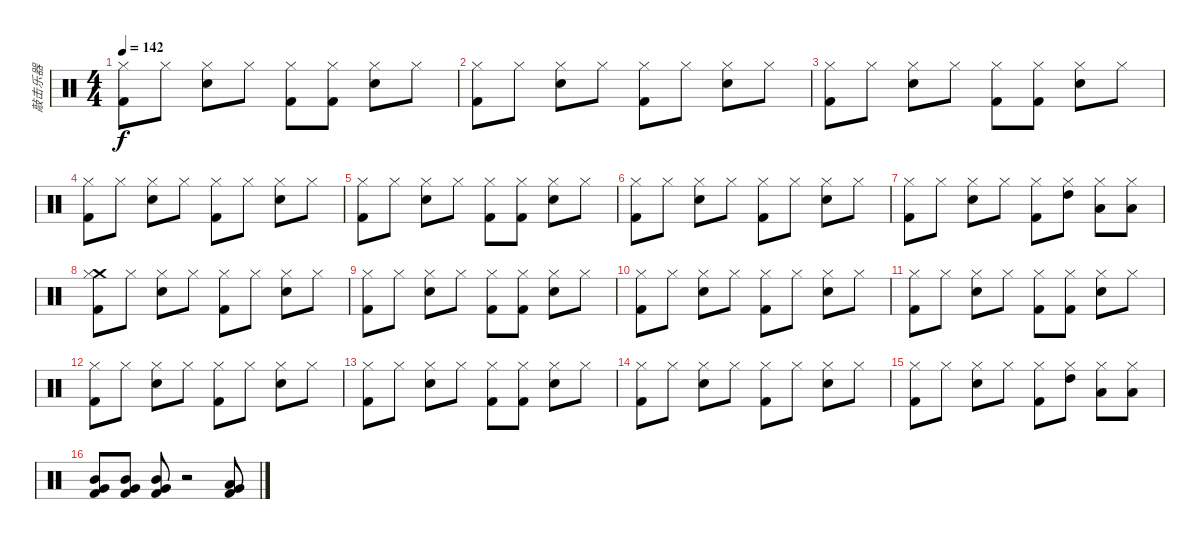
\track ("敲击乐器" "敲击乐器") {instrument percussion}
\staff {score}
\articulation defaults
\ts (4 4)
\tempo 142
\clef neutral
\ks c
("Hi-Hat (closed)" "Kick (hit) 2").8{dy f} "Hi-Hat (closed)".8 ("Snare (hit) 2" "Hi-Hat (closed)").8 "Hi-Hat (closed)".8 ("Hi-Hat (closed)" "Kick (hit) 2").8 ("Hi-Hat (closed)" "Kick (hit) 2").8 ("Snare (hit) 2" "Hi-Hat (closed)").8 "Hi-Hat (closed)".8 |
("Hi-Hat (closed)" "Kick (hit) 2").8 "Hi-Hat (closed)".8 ("Snare (hit) 2" "Hi-Hat (closed)").8 "Hi-Hat (closed)".8 ("Hi-Hat (closed)" "Kick (hit) 2").8 "Hi-Hat (closed)".8 ("Snare (hit) 2" "Hi-Hat (closed)").8 "Hi-Hat (closed)".8 |
("Hi-Hat (closed)" "Kick (hit) 2").8 "Hi-Hat (closed)".8 ("Snare (hit) 2" "Hi-Hat (closed)").8 "Hi-Hat (closed)".8 ("Hi-Hat (closed)" "Kick (hit) 2").8 ("Hi-Hat (closed)" "Kick (hit) 2").8 ("Snare (hit) 2" "Hi-Hat (closed)").8 "Hi-Hat (closed)".8 |
("Hi-Hat (closed)" "Kick (hit) 2").8 "Hi-Hat (closed)".8 ("Snare (hit) 2" "Hi-Hat (closed)").8 "Hi-Hat (closed)".8 ("Hi-Hat (closed)" "Kick (hit) 2").8 "Hi-Hat (closed)".8 ("Snare (hit) 2" "Hi-Hat (closed)").8 "Hi-Hat (closed)".8 |
("Hi-Hat (closed)" "Kick (hit) 2").8 "Hi-Hat (closed)".8 ("Snare (hit) 2" "Hi-Hat (closed)").8 "Hi-Hat (closed)".8 ("Hi-Hat (closed)" "Kick (hit) 2").8 ("Hi-Hat (closed)" "Kick (hit) 2").8 ("Snare (hit) 2" "Hi-Hat (closed)").8 "Hi-Hat (closed)".8 |
("Hi-Hat (closed)" "Kick (hit) 2").8 "Hi-Hat (closed)".8 ("Snare (hit) 2" "Hi-Hat (closed)").8 "Hi-Hat (closed)".8 ("Hi-Hat (closed)" "Kick (hit) 2").8 "Hi-Hat (closed)".8 ("Snare (hit) 2" "Hi-Hat (closed)").8 "Hi-Hat (closed)".8 |
("Hi-Hat (closed)" "Kick (hit) 2").8 "Hi-Hat (closed)".8 ("Snare (hit) 2" "Hi-Hat (closed)").8 "Hi-Hat (closed)".8 ("Hi-Hat (closed)" "Kick (hit) 2").8 ("High Tom (hit)" "Hi-Hat (closed)").8 ("Low Tom (hit)" "Hi-Hat (closed)").8 ("Low Floor Tom (hit)" "Hi-Hat (closed)").8 |
("Crash medium (hit)" "Hi-Hat (closed)" "Kick (hit) 2").8 "Hi-Hat (closed)".8 ("Snare (hit) 2" "Hi-Hat (closed)").8 "Hi-Hat (closed)".8 ("Hi-Hat (closed)" "Kick (hit) 2").8 "Hi-Hat (closed)".8 ("Snare (hit) 2" "Hi-Hat (closed)").8 "Hi-Hat (closed)".8 |
("Hi-Hat (closed)" "Kick (hit) 2").8 "Hi-Hat (closed)".8 ("Snare (hit) 2" "Hi-Hat (closed)").8 "Hi-Hat (closed)".8 ("Hi-Hat (closed)" "Kick (hit) 2").8 ("Hi-Hat (closed)" "Kick (hit) 2").8 ("Snare (hit) 2" "Hi-Hat (closed)").8 "Hi-Hat (closed)".8 |
("Hi-Hat (closed)" "Kick (hit) 2").8 "Hi-Hat (closed)".8 ("Snare (hit) 2" "Hi-Hat (closed)").8 "Hi-Hat (closed)".8 ("Hi-Hat (closed)" "Kick (hit) 2").8 "Hi-Hat (closed)".8 ("Snare (hit) 2" "Hi-Hat (closed)").8 "Hi-Hat (closed)".8 |
("Hi-Hat (closed)" "Kick (hit) 2").8 "Hi-Hat (closed)".8 ("Snare (hit) 2" "Hi-Hat (closed)").8 "Hi-Hat (closed)".8 ("Hi-Hat (closed)" "Kick (hit) 2").8 ("Hi-Hat (closed)" "Kick (hit) 2").8 ("Snare (hit) 2" "Hi-Hat (closed)").8 "Hi-Hat (closed)".8 |
("Hi-Hat (closed)" "Kick (hit) 2").8 "Hi-Hat (closed)".8 ("Snare (hit) 2" "Hi-Hat (closed)").8 "Hi-Hat (closed)".8 ("Hi-Hat (closed)" "Kick (hit) 2").8 "Hi-Hat (closed)".8 ("Snare (hit) 2" "Hi-Hat (closed)").8 "Hi-Hat (closed)".8 |
("Hi-Hat (closed)" "Kick (hit) 2").8 "Hi-Hat (closed)".8 ("Snare (hit) 2" "Hi-Hat (closed)").8 "Hi-Hat (closed)".8 ("Hi-Hat (closed)" "Kick (hit) 2").8 ("Hi-Hat (closed)" "Kick (hit) 2").8 ("Snare (hit) 2" "Hi-Hat (closed)").8 "Hi-Hat (closed)".8 |
("Hi-Hat (closed)" "Kick (hit) 2").8 "Hi-Hat (closed)".8 ("Snare (hit) 2" "Hi-Hat (closed)").8 "Hi-Hat (closed)".8 ("Hi-Hat (closed)" "Kick (hit) 2").8 "Hi-Hat (closed)".8 ("Snare (hit) 2" "Hi-Hat (closed)").8 "Hi-Hat (closed)".8 |
("Hi-Hat (closed)" "Kick (hit) 2").8 "Hi-Hat (closed)".8 ("Snare (hit) 2" "Hi-Hat (closed)").8 "Hi-Hat (closed)".8 ("Hi-Hat (closed)" "Kick (hit) 2").8 ("High Tom (hit)" "Hi-Hat (closed)").8 ("Low Tom (hit)" "Hi-Hat (closed)").8 ("Low Floor Tom (hit)" "Hi-Hat (closed)").8 |
("Mid Tom (hit)" "Very Low Tom (hit)" "Kick (hit) 2").8 ("Mid Tom (hit)" "Very Low Tom (hit)" "Kick (hit) 2").8 ("Mid Tom (hit)" "Very Low Tom (hit)" "Kick (hit) 2").8 r.2 ("Low Tom (hit)" "Very Low Tom (hit)" "Kick (hit) 2").8
